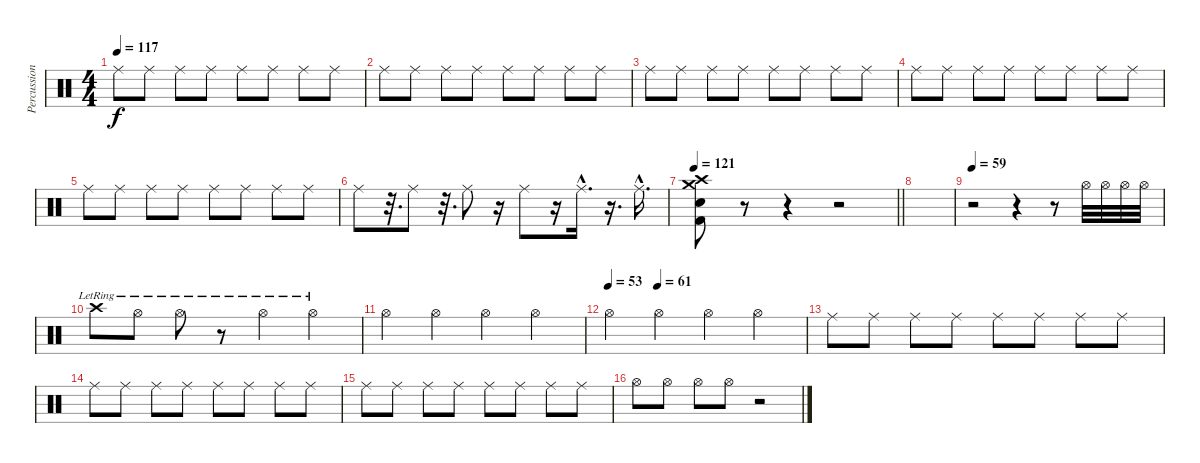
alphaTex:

\track ("Percussion" "Percussion") {instrument percussion}
\staff {score}
\articulation defaults
\ts (4 4)
\tempo 117
\clef neutral
\ks c "Ride (middle)".8{dy f} "Ride (middle)".8 "Ride (middle)".8 "Ride (middle)".8 "Ride (middle)".8 "Ride (middle)".8 "Ride (middle)".8 "Ride (middle)".8
|
"Ride (middle)".8 "Ride (middle)".8 "Ride (middle)".8 "Ride (middle)".8 "Ride (middle)".8 "Ride (middle)".8 "Ride (middle)".8 "Ride (middle)".8 |
"Ride (middle)".8 "Ride (middle)".8 "Ride (middle)".8 "Ride (middle)".8 "Ride (middle)".8 "Ride (middle)".8 "Ride (middle)".8 "Ride (middle)".8 |
"Ride (middle)".8 "Ride (middle)".8 "Ride (middle)".8 "Ride (middle)".8 "Ride (middle)".8 "Ride (middle)".8 "Ride (middle)".8 "Ride (middle)".8 |
"Ride (middle)".8 "Ride (middle)".8 "Ride (middle)".8 "Ride (middle)".8 "Ride (middle)".8 "Ride (middle)".8 "Ride (middle)".8 "Ride (middle)".8 |
"Ride (middle)".8 r.32{d} "Ride (middle)".8 r.32{d} "Ride (middle)".8 r.16 "Ride (middle)".8 r.16 "Ride (middle)"{hac}.16{d} r.16{d} "Ride (middle)"{hac}.16{d} |
\tempo 121
\barLineRight lightlight
("Crash high (hit)" "Crash medium (hit)" "Snare (hit) 2" "Kick (hit) 2").8 r.8 r.4 r.2 |
|
\tempo 59
r.2 r.4 r.8 "Hi-Hat (open)".32{volume 6} "Hi-Hat (open)".32 "Hi-Hat (open)".32 "Hi-Hat (open)".32 |
"Crash high (hit)"{lr}.8 "Hi-Hat (open)"{lr}.8 "Hi-Hat (open)"{lr}.8 r.8 "Hi-Hat (open)"{lr}.4 "Hi-Hat (open)"{lr}.4 |
"Hi-Hat (open)".4 "Hi-Hat (open)".4 "Hi-Hat (open)".4 "Hi-Hat (open)".4 |
\tempo 60
\tempo (61 0.25)
\tempo (53)
"Hi-Hat (open)".4 "Hi-Hat (open)".4 "Hi-Hat (open)".4 "Hi-Hat (open)".4 |
"Ride (middle)".8 "Ride (middle)".8 "Ride (middle)".8 "Ride (middle)".8 "Ride (middle)".8 "Ride (middle)".8 "Ride (middle)".8 "Ride (middle)".8 |
"Ride (middle)".8 "Ride (middle)".8 "Ride (middle)".8 "Ride (middle)".8 "Ride (middle)".8 "Ride (middle)".8 "Ride (middle)".8 "Ride (middle)".8 |
"Ride (middle)".8 "Ride (middle)".8 "Ride (middle)".8 "Ride (middle)".8 "Ride (middle)".8 "Ride (middle)".8 "Ride (middle)".8 "Ride (middle)".8 |
"Hi-Hat (open)".8{volume 6} "Hi-Hat (open)".8{volume 6} "Hi-Hat (open)".8{volume 6} "Hi-Hat (open)".8{volume 6} r.2
